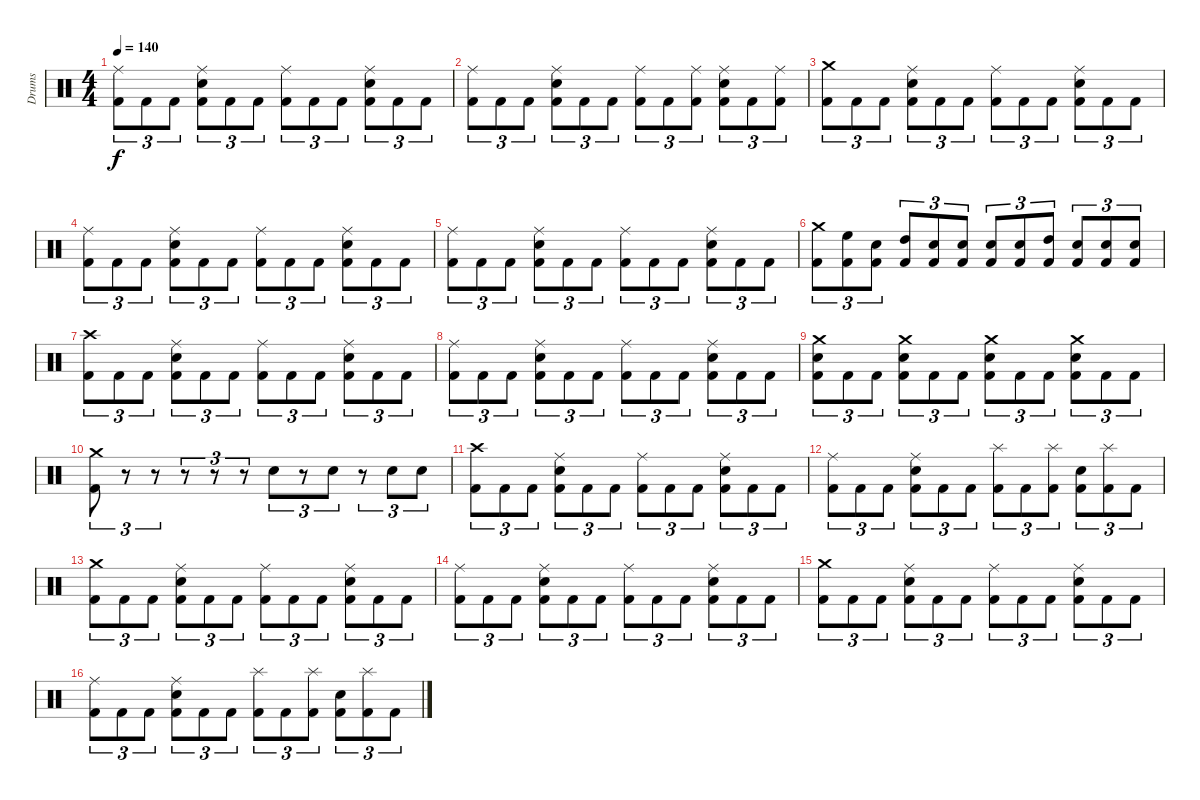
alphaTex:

\track ("Drums" "Drums") {instrument percussion}
\staff {score}
\articulation defaults
\ts (4 4)
\tempo 140
\clef neutral
\ks c
("Ride (middle)" "Kick (hit) 2").8{tu (3 2) dy f} "Kick (hit) 2".8{tu (3 2)} "Kick (hit) 2".8{tu (3 2)} ("Ride (middle)" "Snare (hit) 2" "Kick (hit) 2").8{tu (3 2)} "Kick (hit) 2".8{tu (3 2)} "Kick (hit) 2".8{tu (3 2)} ("Ride (middle)" "Kick (hit) 2").8{tu (3 2)} "Kick (hit) 2".8{tu (3 2)} "Kick (hit) 2".8{tu (3 2)} ("Ride (middle)" "Snare (hit) 2" "Kick (hit) 2").8{tu (3 2)} "Kick (hit) 2".8{tu (3 2)} "Kick (hit) 2".8{tu (3 2)} |
("Ride (middle)" "Kick (hit) 2").8{tu (3 2)} "Kick (hit) 2".8{tu (3 2)} "Kick (hit) 2".8{tu (3 2)} ("Ride (middle)" "Snare (hit) 2" "Kick (hit) 2").8{tu (3 2)} "Kick (hit) 2".8{tu (3 2)} "Kick (hit) 2".8{tu (3 2)} ("Ride (middle)" "Kick (hit) 2").8{tu (3 2)} "Kick (hit) 2".8{tu (3 2)} ("Ride (middle)" "Kick (hit) 2").8{tu (3 2)} ("Ride (middle)" "Snare (hit) 2" "Kick (hit) 2").8{tu (3 2)} "Kick (hit) 2".8{tu (3 2)} ("Ride (middle)" "Kick (hit) 2").8{tu (3 2)} |
("Crash medium (hit)" "Kick (hit) 2").8{tu (3 2)} "Kick (hit) 2".8{tu (3 2)} "Kick (hit) 2".8{tu (3 2)} ("Ride (middle)" "Snare (hit) 2" "Kick (hit) 2").8{tu (3 2)} "Kick (hit) 2".8{tu (3 2)} "Kick (hit) 2".8{tu (3 2)} ("Ride (middle)" "Kick (hit) 2").8{tu (3 2)} "Kick (hit) 2".8{tu (3 2)} "Kick (hit) 2".8{tu (3 2)} ("Ride (middle)" "Snare (hit) 2" "Kick (hit) 2").8{tu (3 2)} "Kick (hit) 2".8{tu (3 2)} "Kick (hit) 2".8{tu (3 2)} |
("Ride (middle)" "Kick (hit) 2").8{tu (3 2)} "Kick (hit) 2".8{tu (3 2)} "Kick (hit) 2".8{tu (3 2)} ("Ride (middle)" "Snare (hit) 2" "Kick (hit) 2").8{tu (3 2)} "Kick (hit) 2".8{tu (3 2)} "Kick (hit) 2".8{tu (3 2)} ("Ride (middle)" "Kick (hit) 2").8{tu (3 2)} "Kick (hit) 2".8{tu (3 2)} "Kick (hit) 2".8{tu (3 2)} ("Ride (middle)" "Snare (hit) 2" "Kick (hit) 2").8{tu (3 2)} "Kick (hit) 2".8{tu (3 2)} "Kick (hit) 2".8{tu (3 2)} |
("Ride (middle)" "Kick (hit) 2").8{tu (3 2)} "Kick (hit) 2".8{tu (3 2)} "Kick (hit) 2".8{tu (3 2)} ("Ride (middle)" "Snare (hit) 2" "Kick (hit) 2").8{tu (3 2)} "Kick (hit) 2".8{tu (3 2)} "Kick (hit) 2".8{tu (3 2)} ("Ride (middle)" "Kick (hit) 2").8{tu (3 2)} "Kick (hit) 2".8{tu (3 2)} "Kick (hit) 2".8{tu (3 2)} ("Ride (middle)" "Snare (hit) 2" "Kick (hit) 2").8{tu (3 2)} "Kick (hit) 2".8{tu (3 2)} "Kick (hit) 2".8{tu (3 2)} |
("Crash medium (hit)" "Kick (hit) 2").8{tu (3 2)} ("High Floor Tom (hit)" "Kick (hit) 2").8{tu (3 2)} ("Snare (hit) 2" "Kick (hit) 2").8{tu (3 2)} ("High Tom (hit)" "Kick (hit) 2").8{tu (3 2)} ("Snare (hit) 2" "Kick (hit) 2").8{tu (3 2)} ("Snare (hit) 2" "Kick (hit) 2").8{tu (3 2)} ("Snare (hit) 2" "Kick (hit) 2").8{tu (3 2)} ("Snare (hit) 2" "Kick (hit) 2").8{tu (3 2)} ("High Tom (hit)" "Kick (hit) 2").8{tu (3 2)} ("Snare (hit) 2" "Kick (hit) 2").8{tu (3 2)} ("Snare (hit) 2" "Kick (hit) 2").8{tu (3 2)} ("Snare (hit) 2" "Kick (hit) 2").8{tu (3 2)} |
("Crash high (hit)" "Kick (hit) 2").8{tu (3 2)} "Kick (hit) 2".8{tu (3 2)} "Kick (hit) 2".8{tu (3 2)} ("Ride (middle)" "Snare (hit) 2" "Kick (hit) 2").8{tu (3 2)} "Kick (hit) 2".8{tu (3 2)} "Kick (hit) 2".8{tu (3 2)} ("Ride (middle)" "Kick (hit) 2").8{tu (3 2)} "Kick (hit) 2".8{tu (3 2)} "Kick (hit) 2".8{tu (3 2)} ("Ride (middle)" "Snare (hit) 2" "Kick (hit) 2").8{tu (3 2)} "Kick (hit) 2".8{tu (3 2)} "Kick (hit) 2".8{tu (3 2)} |
("Ride (middle)" "Kick (hit) 2").8{tu (3 2)} "Kick (hit) 2".8{tu (3 2)} "Kick (hit) 2".8{tu (3 2)} ("Ride (middle)" "Snare (hit) 2" "Kick (hit) 2").8{tu (3 2)} "Kick (hit) 2".8{tu (3 2)} "Kick (hit) 2".8{tu (3 2)} ("Ride (middle)" "Kick (hit) 2").8{tu (3 2)} "Kick (hit) 2".8{tu (3 2)} "Kick (hit) 2".8{tu (3 2)} ("Ride (middle)" "Snare (hit) 2" "Kick (hit) 2").8{tu (3 2)} "Kick (hit) 2".8{tu (3 2)} "Kick (hit) 2".8{tu (3 2)} |
("Crash medium (hit)" "Snare (hit) 2" "Kick (hit) 2").8{tu (3 2)} "Kick (hit) 2".8{tu (3 2)} "Kick (hit) 2".8{tu (3 2)} ("Crash medium (hit)" "Snare (hit) 2" "Kick (hit) 2").8{tu (3 2)} "Kick (hit) 2".8{tu (3 2)} "Kick (hit) 2".8{tu (3 2)} ("Crash medium (hit)" "Snare (hit) 2" "Kick (hit) 2").8{tu (3 2)} "Kick (hit) 2".8{tu (3 2)} "Kick (hit) 2".8{tu (3 2)} ("Crash medium (hit)" "Snare (hit) 2" "Kick (hit) 2").8{tu (3 2)} "Kick (hit) 2".8{tu (3 2)} "Kick (hit) 2".8{tu (3 2)} |
("Crash medium (hit)" "Kick (hit) 2").8{tu (3 2)} r.8{tu (3 2)} r.8{tu (3 2)} r.8{tu (3 2)} r.8{tu (3 2)} r.8{tu (3 2)} "Snare (hit) 2".8{tu (3 2)} r.8{tu (3 2)} "Snare (hit) 2".8{tu (3 2)} r.8{tu (3 2)} "Snare (hit) 2".8{tu (3 2)} "Snare (hit) 2".8{tu (3 2)} |
("Crash high (hit)" "Kick (hit) 2").8{tu (3 2)} "Kick (hit) 2".8{tu (3 2)} "Kick (hit) 2".8{tu (3 2)} ("Ride (middle)" "Snare (hit) 2" "Kick (hit) 2").8{tu (3 2)} "Kick (hit) 2".8{tu (3 2)} "Kick (hit) 2".8{tu (3 2)} ("Ride (middle)" "Kick (hit) 2").8{tu (3 2)} "Kick (hit) 2".8{tu (3 2)} "Kick (hit) 2".8{tu (3 2)} ("Ride (middle)" "Snare (hit) 2" "Kick (hit) 2").8{tu (3 2)} "Kick (hit) 2".8{tu (3 2)} "Kick (hit) 2".8{tu (3 2)} |
("Ride (middle)" "Kick (hit) 2").8{tu (3 2)} "Kick (hit) 2".8{tu (3 2)} "Kick (hit) 2".8{tu (3 2)} ("Ride (middle)" "Snare (hit) 2" "Kick (hit) 2").8{tu (3 2)} "Kick (hit) 2".8{tu (3 2)} "Kick (hit) 2".8{tu (3 2)} ("Splash (hit)" "Kick (hit) 2").8{tu (3 2)} "Kick (hit) 2".8{tu (3 2)} ("Splash (hit)" "Kick (hit) 2").8{tu (3 2)} ("Snare (hit) 2" "Kick (hit) 2").8{tu (3 2)} ("Splash (hit)" "Kick (hit) 2").8{tu (3 2)} "Kick (hit) 2".8{tu (3 2)} |
("Crash medium (hit)" "Kick (hit) 2").8{tu (3 2)} "Kick (hit) 2".8{tu (3 2)} "Kick (hit) 2".8{tu (3 2)} ("Ride (middle)" "Snare (hit) 2" "Kick (hit) 2").8{tu (3 2)} "Kick (hit) 2".8{tu (3 2)} "Kick (hit) 2".8{tu (3 2)} ("Ride (middle)" "Kick (hit) 2").8{tu (3 2)} "Kick (hit) 2".8{tu (3 2)} "Kick (hit) 2".8{tu (3 2)} ("Ride (middle)" "Snare (hit) 2" "Kick (hit) 2").8{tu (3 2)} "Kick (hit) 2".8{tu (3 2)} "Kick (hit) 2".8{tu (3 2)} |
("Ride (middle)" "Kick (hit) 2").8{tu (3 2)} "Kick (hit) 2".8{tu (3 2)} "Kick (hit) 2".8{tu (3 2)} ("Ride (middle)" "Snare (hit) 2" "Kick (hit) 2").8{tu (3 2)} "Kick (hit) 2".8{tu (3 2)} "Kick (hit) 2".8{tu (3 2)} ("Ride (middle)" "Kick (hit) 2").8{tu (3 2)} "Kick (hit) 2".8{tu (3 2)} "Kick (hit) 2".8{tu (3 2)} ("Ride (middle)" "Snare (hit) 2" "Kick (hit) 2").8{tu (3 2)} "Kick (hit) 2".8{tu (3 2)} "Kick (hit) 2".8{tu (3 2)} |
("Crash medium (hit)" "Kick (hit) 2").8{tu (3 2)} "Kick (hit) 2".8{tu (3 2)} "Kick (hit) 2".8{tu (3 2)} ("Ride (middle)" "Snare (hit) 2" "Kick (hit) 2").8{tu (3 2)} "Kick (hit) 2".8{tu (3 2)} "Kick (hit) 2".8{tu (3 2)} ("Ride (middle)" "Kick (hit) 2").8{tu (3 2)} "Kick (hit) 2".8{tu (3 2)} "Kick (hit) 2".8{tu (3 2)} ("Ride (middle)" "Snare (hit) 2" "Kick (hit) 2").8{tu (3 2)} "Kick (hit) 2".8{tu (3 2)} "Kick (hit) 2".8{tu (3 2)} |
("Ride (middle)" "Kick (hit) 2").8{tu (3 2)} "Kick (hit) 2".8{tu (3 2)} "Kick (hit) 2".8{tu (3 2)} ("Ride (middle)" "Snare (hit) 2" "Kick (hit) 2").8{tu (3 2)} "Kick (hit) 2".8{tu (3 2)} "Kick (hit) 2".8{tu (3 2)} ("Splash (hit)" "Kick (hit) 2").8{tu (3 2)} "Kick (hit) 2".8{tu (3 2)} ("Splash (hit)" "Kick (hit) 2").8{tu (3 2)} ("Snare (hit) 2" "Kick (hit) 2").8{tu (3 2)} ("Splash (hit)" "Kick (hit) 2").8{tu (3 2)} "Kick (hit) 2".8{tu (3 2)}
